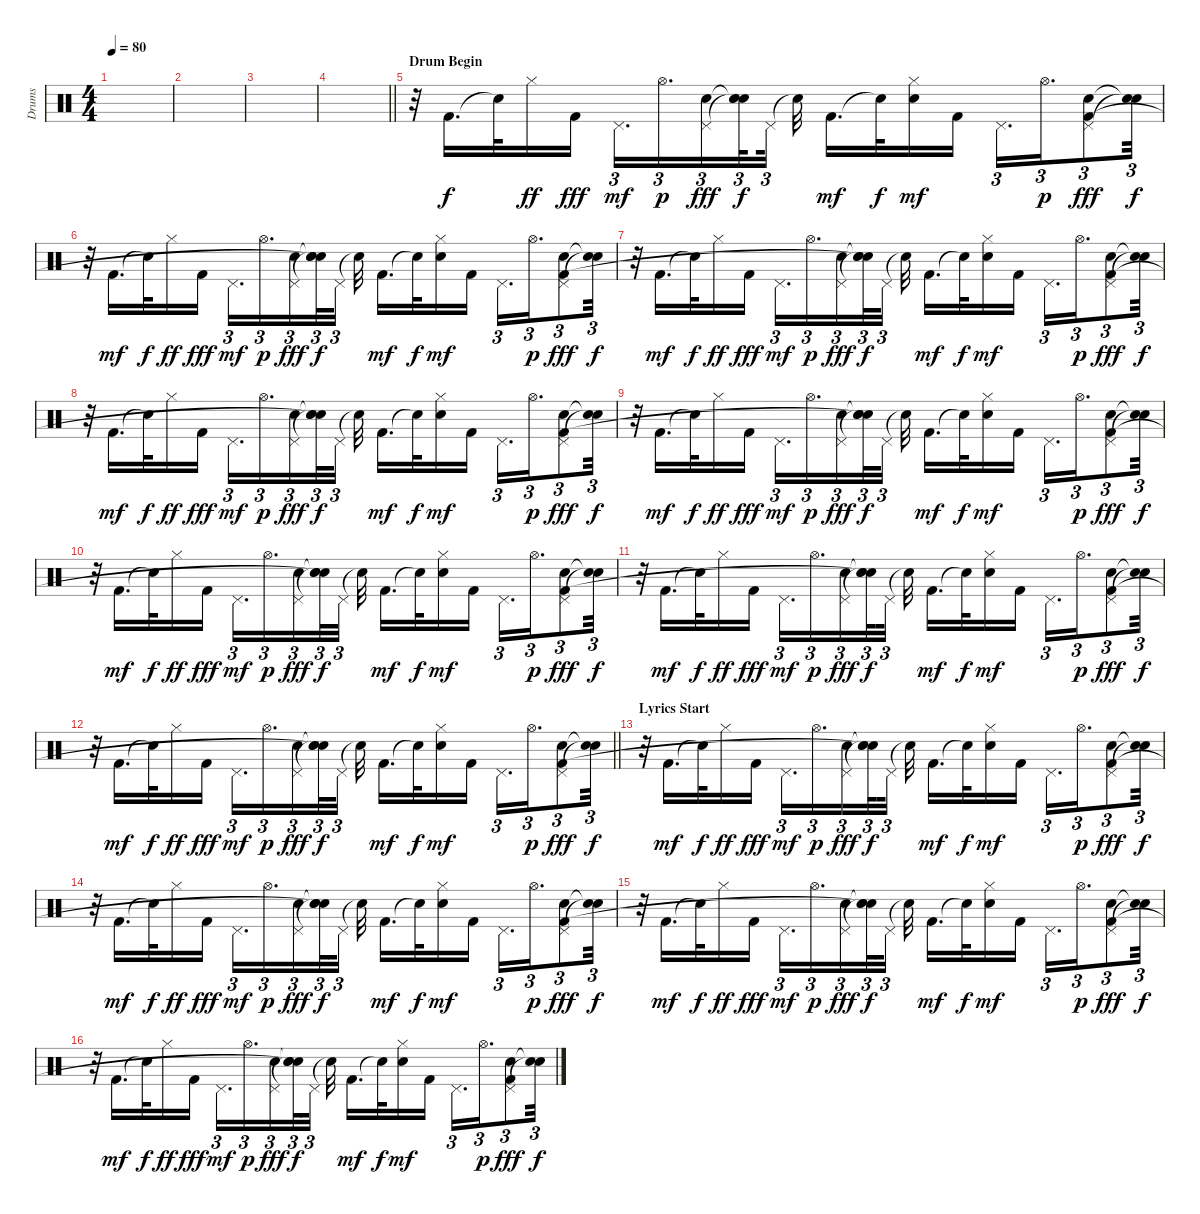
\track ("Drums" "Drums") {instrument percussion}
\staff {score}
\articulation defaults
\ts (4 4)
\tempo 80
\clef neutral
\ks c
|
|
|
\barLineRight lightlight
|
\section ("" "Drum Begin")
r.32 "Kick (hit) 2".16{d} "Snare (hit)"{t}.32{dy f} "Hi-Hat (closed)".16{dy ff} "Kick (hit) 2".16{dy fff} "Pedal Hi-Hat (hit)".16{d tu (3 2) dy mf} "Hi-Hat (open)".16{d tu (3 2) dy p} ("Electric Snare (hit)" "Pedal Hi-Hat (hit)").16{tu (3 2) dy fff} ("Snare (hit)"{t} "Snare (hit)"{t} "Snare (hit)").32{tu (3 2) dy f beam splitsecondary} "Pedal Hi-Hat (hit)".32{tu (3 2)} "Snare (hit)"{t}.32 "Kick (hit) 2".16{d dy mf} "Snare (hit)"{t}.32{dy f} ("Electric Snare (hit)" "Hi-Hat (closed)").16{dy mf} "Kick (hit) 2".16 "Pedal Hi-Hat (hit)".16{d tu (3 2)} "Hi-Hat (open)".16{d tu (3 2) dy p} ("Electric Snare (hit)" "Pedal Hi-Hat (hit)" "Kick (hit) 2").8{tu (3 2) dy fff} ("Snare (hit)"{t} "Snare (hit)"{t}).32{tu (3 2) dy f} |
r.32 "Kick (hit) 2".16{d dy mf} "Snare (hit)"{t}.32{dy f} "Hi-Hat (closed)".16{dy ff} "Kick (hit) 2".16{dy fff} "Pedal Hi-Hat (hit)".16{d tu (3 2) dy mf} "Hi-Hat (open)".16{d tu (3 2) dy p} ("Electric Snare (hit)" "Pedal Hi-Hat (hit)").16{tu (3 2) dy fff} ("Snare (hit)"{t} "Snare (hit)"{t} "Snare (hit)"{t}).32{tu (3 2) dy f beam splitsecondary} "Pedal Hi-Hat (hit)".32{tu (3 2)} "Snare (hit)"{t}.32 "Kick (hit) 2".16{d dy mf} "Snare (hit)"{t}.32{dy f} ("Electric Snare (hit)" "Hi-Hat (closed)").16{dy mf} "Kick (hit) 2".16 "Pedal Hi-Hat (hit)".16{d tu (3 2)} "Hi-Hat (open)".16{d tu (3 2) dy p} ("Electric Snare (hit)" "Pedal Hi-Hat (hit)" "Kick (hit) 2").8{tu (3 2) dy fff} ("Snare (hit)"{t} "Snare (hit)"{t}).32{tu (3 2) dy f} |
r.32 "Kick (hit) 2".16{d dy mf} "Snare (hit)"{t}.32{dy f} "Hi-Hat (closed)".16{dy ff} "Kick (hit) 2".16{dy fff} "Pedal Hi-Hat (hit)".16{d tu (3 2) dy mf} "Hi-Hat (open)".16{d tu (3 2) dy p} ("Electric Snare (hit)" "Pedal Hi-Hat (hit)").16{tu (3 2) dy fff} ("Snare (hit)"{t} "Snare (hit)"{t} "Snare (hit)"{t}).32{tu (3 2) dy f beam splitsecondary} "Pedal Hi-Hat (hit)".32{tu (3 2)} "Snare (hit)"{t}.32 "Kick (hit) 2".16{d dy mf} "Snare (hit)"{t}.32{dy f} ("Electric Snare (hit)" "Hi-Hat (closed)").16{dy mf} "Kick (hit) 2".16 "Pedal Hi-Hat (hit)".16{d tu (3 2)} "Hi-Hat (open)".16{d tu (3 2) dy p} ("Electric Snare (hit)" "Pedal Hi-Hat (hit)" "Kick (hit) 2").8{tu (3 2) dy fff} ("Snare (hit)"{t} "Snare (hit)"{t}).32{tu (3 2) dy f} |
r.32 "Kick (hit) 2".16{d dy mf} "Snare (hit)"{t}.32{dy f} "Hi-Hat (closed)".16{dy ff} "Kick (hit) 2".16{dy fff} "Pedal Hi-Hat (hit)".16{d tu (3 2) dy mf} "Hi-Hat (open)".16{d tu (3 2) dy p} ("Electric Snare (hit)" "Pedal Hi-Hat (hit)").16{tu (3 2) dy fff} ("Snare (hit)"{t} "Snare (hit)"{t} "Snare (hit)"{t}).32{tu (3 2) dy f beam splitsecondary} "Pedal Hi-Hat (hit)".32{tu (3 2)} "Snare (hit)"{t}.32 "Kick (hit) 2".16{d dy mf} "Snare (hit)"{t}.32{dy f} ("Electric Snare (hit)" "Hi-Hat (closed)").16{dy mf} "Kick (hit) 2".16 "Pedal Hi-Hat (hit)".16{d tu (3 2)} "Hi-Hat (open)".16{d tu (3 2) dy p} ("Electric Snare (hit)" "Pedal Hi-Hat (hit)" "Kick (hit) 2").8{tu (3 2) dy fff} ("Snare (hit)"{t} "Snare (hit)"{t}).32{tu (3 2) dy f} |
r.32 "Kick (hit) 2".16{d dy mf} "Snare (hit)"{t}.32{dy f} "Hi-Hat (closed)".16{dy ff} "Kick (hit) 2".16{dy fff} "Pedal Hi-Hat (hit)".16{d tu (3 2) dy mf} "Hi-Hat (open)".16{d tu (3 2) dy p} ("Electric Snare (hit)" "Pedal Hi-Hat (hit)").16{tu (3 2) dy fff} ("Snare (hit)"{t} "Snare (hit)"{t} "Snare (hit)"{t}).32{tu (3 2) dy f beam splitsecondary} "Pedal Hi-Hat (hit)".32{tu (3 2)} "Snare (hit)"{t}.32 "Kick (hit) 2".16{d dy mf} "Snare (hit)"{t}.32{dy f} ("Electric Snare (hit)" "Hi-Hat (closed)").16{dy mf} "Kick (hit) 2".16 "Pedal Hi-Hat (hit)".16{d tu (3 2)} "Hi-Hat (open)".16{d tu (3 2) dy p} ("Electric Snare (hit)" "Pedal Hi-Hat (hit)" "Kick (hit) 2").8{tu (3 2) dy fff} ("Snare (hit)"{t} "Snare (hit)"{t}).32{tu (3 2) dy f} |
r.32 "Kick (hit) 2".16{d dy mf} "Snare (hit)"{t}.32{dy f} "Hi-Hat (closed)".16{dy ff} "Kick (hit) 2".16{dy fff} "Pedal Hi-Hat (hit)".16{d tu (3 2) dy mf} "Hi-Hat (open)".16{d tu (3 2) dy p} ("Electric Snare (hit)" "Pedal Hi-Hat (hit)").16{tu (3 2) dy fff} ("Snare (hit)"{t} "Snare (hit)"{t} "Snare (hit)"{t}).32{tu (3 2) dy f beam splitsecondary} "Pedal Hi-Hat (hit)".32{tu (3 2)} "Snare (hit)"{t}.32 "Kick (hit) 2".16{d dy mf} "Snare (hit)"{t}.32{dy f} ("Electric Snare (hit)" "Hi-Hat (closed)").16{dy mf} "Kick (hit) 2".16 "Pedal Hi-Hat (hit)".16{d tu (3 2)} "Hi-Hat (open)".16{d tu (3 2) dy p} ("Electric Snare (hit)" "Pedal Hi-Hat (hit)" "Kick (hit) 2").8{tu (3 2) dy fff} ("Snare (hit)"{t} "Snare (hit)"{t}).32{tu (3 2) dy f} |
r.32 "Kick (hit) 2".16{d dy mf} "Snare (hit)"{t}.32{dy f} "Hi-Hat (closed)".16{dy ff} "Kick (hit) 2".16{dy fff} "Pedal Hi-Hat (hit)".16{d tu (3 2) dy mf} "Hi-Hat (open)".16{d tu (3 2) dy p} ("Electric Snare (hit)" "Pedal Hi-Hat (hit)").16{tu (3 2) dy fff} ("Snare (hit)"{t} "Snare (hit)"{t} "Snare (hit)"{t}).32{tu (3 2) dy f beam splitsecondary} "Pedal Hi-Hat (hit)".32{tu (3 2)} "Snare (hit)"{t}.32 "Kick (hit) 2".16{d dy mf} "Snare (hit)"{t}.32{dy f} ("Electric Snare (hit)" "Hi-Hat (closed)").16{dy mf} "Kick (hit) 2".16 "Pedal Hi-Hat (hit)".16{d tu (3 2)} "Hi-Hat (open)".16{d tu (3 2) dy p} ("Electric Snare (hit)" "Pedal Hi-Hat (hit)" "Kick (hit) 2").8{tu (3 2) dy fff} ("Snare (hit)"{t} "Snare (hit)"{t}).32{tu (3 2) dy f} |
\barLineRight lightlight
r.32 "Kick (hit) 2".16{d dy mf} "Snare (hit)"{t}.32{dy f} "Hi-Hat (closed)".16{dy ff} "Kick (hit) 2".16{dy fff} "Pedal Hi-Hat (hit)".16{d tu (3 2) dy mf} "Hi-Hat (open)".16{d tu (3 2) dy p} ("Electric Snare (hit)" "Pedal Hi-Hat (hit)").16{tu (3 2) dy fff} ("Snare (hit)"{t} "Snare (hit)"{t} "Snare (hit)"{t}).32{tu (3 2) dy f beam splitsecondary} "Pedal Hi-Hat (hit)".32{tu (3 2)} "Snare (hit)"{t}.32 "Kick (hit) 2".16{d dy mf} "Snare (hit)"{t}.32{dy f} ("Electric Snare (hit)" "Hi-Hat (closed)").16{dy mf} "Kick (hit) 2".16 "Pedal Hi-Hat (hit)".16{d tu (3 2)} "Hi-Hat (open)".16{d tu (3 2) dy p} ("Electric Snare (hit)" "Pedal Hi-Hat (hit)" "Kick (hit) 2").8{tu (3 2) dy fff} ("Snare (hit)"{t} "Snare (hit)"{t}).32{tu (3 2) dy f} |
\section ("" "Lyrics Start")
r.32 "Kick (hit) 2".16{d dy mf} "Snare (hit)"{t}.32{dy f} "Hi-Hat (closed)".16{dy ff} "Kick (hit) 2".16{dy fff} "Pedal Hi-Hat (hit)".16{d tu (3 2) dy mf} "Hi-Hat (open)".16{d tu (3 2) dy p} ("Electric Snare (hit)" "Pedal Hi-Hat (hit)").16{tu (3 2) dy fff} ("Snare (hit)"{t} "Snare (hit)"{t} "Snare (hit)"{t}).32{tu (3 2) dy f beam splitsecondary} "Pedal Hi-Hat (hit)".32{tu (3 2)} "Snare (hit)"{t}.32 "Kick (hit) 2".16{d dy mf} "Snare (hit)"{t}.32{dy f} ("Electric Snare (hit)" "Hi-Hat (closed)").16{dy mf} "Kick (hit) 2".16 "Pedal Hi-Hat (hit)".16{d tu (3 2)} "Hi-Hat (open)".16{d tu (3 2) dy p} ("Electric Snare (hit)" "Pedal Hi-Hat (hit)" "Kick (hit) 2").8{tu (3 2) dy fff} ("Snare (hit)"{t} "Snare (hit)"{t}).32{tu (3 2) dy f} |
r.32 "Kick (hit) 2".16{d dy mf} "Snare (hit)"{t}.32{dy f} "Hi-Hat (closed)".16{dy ff} "Kick (hit) 2".16{dy fff} "Pedal Hi-Hat (hit)".16{d tu (3 2) dy mf} "Hi-Hat (open)".16{d tu (3 2) dy p} ("Electric Snare (hit)" "Pedal Hi-Hat (hit)").16{tu (3 2) dy fff} ("Snare (hit)"{t} "Snare (hit)"{t} "Snare (hit)"{t}).32{tu (3 2) dy f beam splitsecondary} "Pedal Hi-Hat (hit)".32{tu (3 2)} "Snare (hit)"{t}.32 "Kick (hit) 2".16{d dy mf} "Snare (hit)"{t}.32{dy f} ("Electric Snare (hit)" "Hi-Hat (closed)").16{dy mf} "Kick (hit) 2".16 "Pedal Hi-Hat (hit)".16{d tu (3 2)} "Hi-Hat (open)".16{d tu (3 2) dy p} ("Electric Snare (hit)" "Pedal Hi-Hat (hit)" "Kick (hit) 2").8{tu (3 2) dy fff} ("Snare (hit)"{t} "Snare (hit)"{t}).32{tu (3 2) dy f} |
r.32 "Kick (hit) 2".16{d dy mf} "Snare (hit)"{t}.32{dy f} "Hi-Hat (closed)".16{dy ff} "Kick (hit) 2".16{dy fff} "Pedal Hi-Hat (hit)".16{d tu (3 2) dy mf} "Hi-Hat (open)".16{d tu (3 2) dy p} ("Electric Snare (hit)" "Pedal Hi-Hat (hit)").16{tu (3 2) dy fff} ("Snare (hit)"{t} "Snare (hit)"{t} "Snare (hit)"{t}).32{tu (3 2) dy f beam splitsecondary} "Pedal Hi-Hat (hit)".32{tu (3 2)} "Snare (hit)"{t}.32 "Kick (hit) 2".16{d dy mf} "Snare (hit)"{t}.32{dy f} ("Electric Snare (hit)" "Hi-Hat (closed)").16{dy mf} "Kick (hit) 2".16 "Pedal Hi-Hat (hit)".16{d tu (3 2)} "Hi-Hat (open)".16{d tu (3 2) dy p} ("Electric Snare (hit)" "Pedal Hi-Hat (hit)" "Kick (hit) 2").8{tu (3 2) dy fff} ("Snare (hit)"{t} "Snare (hit)"{t}).32{tu (3 2) dy f} |
r.32 "Kick (hit) 2".16{d dy mf} "Snare (hit)"{t}.32{dy f} "Hi-Hat (closed)".16{dy ff} "Kick (hit) 2".16{dy fff} "Pedal Hi-Hat (hit)".16{d tu (3 2) dy mf} "Hi-Hat (open)".16{d tu (3 2) dy p} ("Electric Snare (hit)" "Pedal Hi-Hat (hit)").16{tu (3 2) dy fff} ("Snare (hit)"{t} "Snare (hit)"{t} "Snare (hit)"{t}).32{tu (3 2) dy f beam splitsecondary} "Pedal Hi-Hat (hit)".32{tu (3 2)} "Snare (hit)"{t}.32 "Kick (hit) 2".16{d dy mf} "Snare (hit)"{t}.32{dy f} ("Electric Snare (hit)" "Hi-Hat (closed)").16{dy mf} "Kick (hit) 2".16 "Pedal Hi-Hat (hit)".16{d tu (3 2)} "Hi-Hat (open)".16{d tu (3 2) dy p} ("Electric Snare (hit)" "Pedal Hi-Hat (hit)" "Kick (hit) 2").8{tu (3 2) dy fff} ("Snare (hit)"{t} "Snare (hit)"{t}).32{tu (3 2) dy f}
